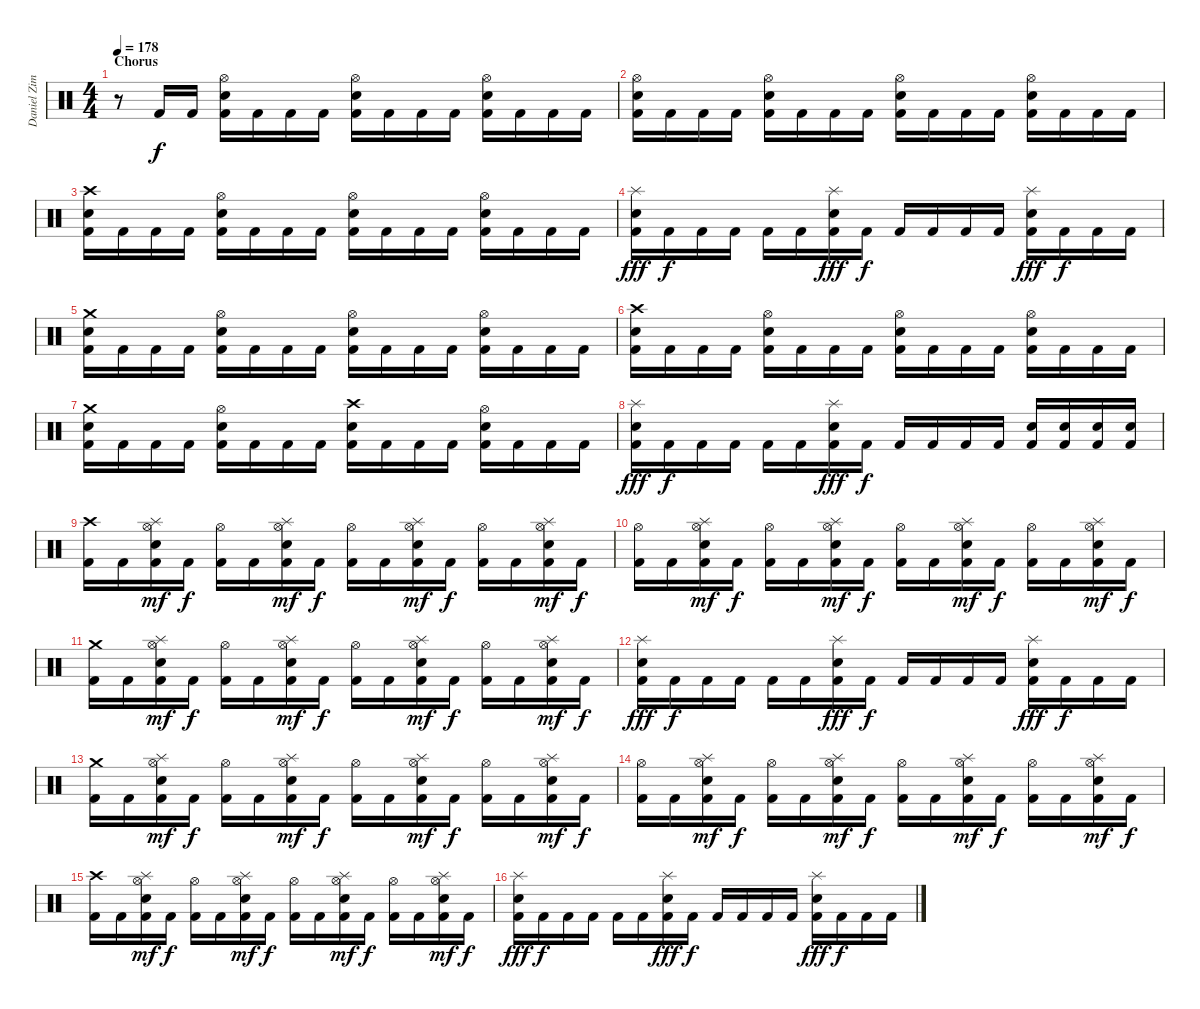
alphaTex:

\track ("Daniel Zimmermann" "Daniel Zim") {instrument percussion}
\staff {score}
\articulation defaults
\ts (4 4)
\section ("" "Chorus")
\tempo 178
\clef neutral
\ks c
r.8{dy f} "Kick (hit) 2".16 "Kick (hit) 2".16 ("Kick (hit) 2" "Electric Snare (hit)" "Hi-Hat (open)").16 "Kick (hit) 2".16 "Kick (hit) 2".16 "Kick (hit) 2".16 ("Kick (hit) 2" "Electric Snare (hit)" "Hi-Hat (open)").16 "Kick (hit) 2".16 "Kick (hit) 2".16 "Kick (hit) 2".16 ("Kick (hit) 2" "Electric Snare (hit)" "Hi-Hat (open)").16 "Kick (hit) 2".16 "Kick (hit) 2".16 "Kick (hit) 2".16 |
("Kick (hit) 2" "Electric Snare (hit)" "Hi-Hat (open)").16 "Kick (hit) 2".16 "Kick (hit) 2".16 "Kick (hit) 2".16 ("Kick (hit) 2" "Electric Snare (hit)" "Hi-Hat (open)").16 "Kick (hit) 2".16 "Kick (hit) 2".16 "Kick (hit) 2".16 ("Kick (hit) 2" "Electric Snare (hit)" "Hi-Hat (open)").16 "Kick (hit) 2".16 "Kick (hit) 2".16 "Kick (hit) 2".16 ("Kick (hit) 2" "Electric Snare (hit)" "Hi-Hat (open)").16 "Kick (hit) 2".16 "Kick (hit) 2".16 "Kick (hit) 2".16 |
("Kick (hit) 2" "Electric Snare (hit)" "Crash high (hit)").16 "Kick (hit) 2".16 "Kick (hit) 2".16 "Kick (hit) 2".16 ("Kick (hit) 2" "Electric Snare (hit)" "Hi-Hat (open)").16 "Kick (hit) 2".16 "Kick (hit) 2".16 "Kick (hit) 2".16 ("Kick (hit) 2" "Electric Snare (hit)" "Hi-Hat (open)").16 "Kick (hit) 2".16 "Kick (hit) 2".16 "Kick (hit) 2".16 ("Kick (hit) 2" "Electric Snare (hit)" "Hi-Hat (open)").16 "Kick (hit) 2".16 "Kick (hit) 2".16 "Kick (hit) 2".16 |
("Kick (hit) 2" "Electric Snare (hit)" "Splash (hit)").16{dy fff} "Kick (hit) 2".16{dy f} "Kick (hit) 2".16 "Kick (hit) 2".16 "Kick (hit) 2".16 "Kick (hit) 2".16 ("Kick (hit) 2" "Electric Snare (hit)" "Splash (hit)").16{dy fff} "Kick (hit) 2".16{dy f} "Kick (hit) 2".16 "Kick (hit) 2".16 "Kick (hit) 2".16 "Kick (hit) 2".16 ("Kick (hit) 2" "Electric Snare (hit)" "Splash (hit)").16{dy fff} "Kick (hit) 2".16{dy f} "Kick (hit) 2".16 "Kick (hit) 2".16 |
("Kick (hit) 2" "Electric Snare (hit)" "Crash medium (hit)").16 "Kick (hit) 2".16 "Kick (hit) 2".16 "Kick (hit) 2".16 ("Kick (hit) 2" "Electric Snare (hit)" "Hi-Hat (open)").16 "Kick (hit) 2".16 "Kick (hit) 2".16 "Kick (hit) 2".16 ("Kick (hit) 2" "Electric Snare (hit)" "Hi-Hat (open)").16 "Kick (hit) 2".16 "Kick (hit) 2".16 "Kick (hit) 2".16 ("Kick (hit) 2" "Electric Snare (hit)" "Hi-Hat (open)").16 "Kick (hit) 2".16 "Kick (hit) 2".16 "Kick (hit) 2".16 |
("Kick (hit) 2" "Electric Snare (hit)" "Crash high (hit)").16 "Kick (hit) 2".16 "Kick (hit) 2".16 "Kick (hit) 2".16 ("Kick (hit) 2" "Electric Snare (hit)" "Hi-Hat (open)").16 "Kick (hit) 2".16 "Kick (hit) 2".16 "Kick (hit) 2".16 ("Kick (hit) 2" "Electric Snare (hit)" "Hi-Hat (open)").16 "Kick (hit) 2".16 "Kick (hit) 2".16 "Kick (hit) 2".16 ("Kick (hit) 2" "Electric Snare (hit)" "Hi-Hat (open)").16 "Kick (hit) 2".16 "Kick (hit) 2".16 "Kick (hit) 2".16 |
("Kick (hit) 2" "Electric Snare (hit)" "Crash medium (hit)").16 "Kick (hit) 2".16 "Kick (hit) 2".16 "Kick (hit) 2".16 ("Kick (hit) 2" "Electric Snare (hit)" "Hi-Hat (open)").16 "Kick (hit) 2".16 "Kick (hit) 2".16 "Kick (hit) 2".16 ("Kick (hit) 2" "Electric Snare (hit)" "Crash high (hit)").16 "Kick (hit) 2".16 "Kick (hit) 2".16 "Kick (hit) 2".16 ("Kick (hit) 2" "Electric Snare (hit)" "Hi-Hat (open)").16 "Kick (hit) 2".16 "Kick (hit) 2".16 "Kick (hit) 2".16 |
("Kick (hit) 2" "Electric Snare (hit)" "Splash (hit)").16{dy fff} "Kick (hit) 2".16{dy f} "Kick (hit) 2".16 "Kick (hit) 2".16 "Kick (hit) 2".16 "Kick (hit) 2".16 ("Kick (hit) 2" "Electric Snare (hit)" "Splash (hit)").16{dy fff} "Kick (hit) 2".16{dy f} "Kick (hit) 2".16 "Kick (hit) 2".16 "Kick (hit) 2".16 "Kick (hit) 2".16 ("Kick (hit) 2" "Electric Snare (hit)").16 ("Kick (hit) 2" "Electric Snare (hit)").16 ("Kick (hit) 2" "Electric Snare (hit)").16 ("Kick (hit) 2" "Electric Snare (hit)").16 |
("Kick (hit) 2" "Crash high (hit)").16 "Kick (hit) 2".16 ("Kick (hit) 2" "Electric Snare (hit)" "Hi-Hat (open)" "Splash (hit)").16{dy mf} "Kick (hit) 2".16{dy f} ("Kick (hit) 2" "Hi-Hat (open)").16 "Kick (hit) 2".16 ("Kick (hit) 2" "Electric Snare (hit)" "Hi-Hat (open)" "Splash (hit)").16{dy mf} "Kick (hit) 2".16{dy f} ("Kick (hit) 2" "Hi-Hat (open)").16 "Kick (hit) 2".16 ("Kick (hit) 2" "Electric Snare (hit)" "Hi-Hat (open)" "Splash (hit)").16{dy mf} "Kick (hit) 2".16{dy f} ("Kick (hit) 2" "Hi-Hat (open)").16 "Kick (hit) 2".16 ("Kick (hit) 2" "Electric Snare (hit)" "Hi-Hat (open)" "Splash (hit)").16{dy mf} "Kick (hit) 2".16{dy f} |
("Kick (hit) 2" "Hi-Hat (open)").16 "Kick (hit) 2".16 ("Kick (hit) 2" "Electric Snare (hit)" "Hi-Hat (open)" "Splash (hit)").16{dy mf} "Kick (hit) 2".16{dy f} ("Kick (hit) 2" "Hi-Hat (open)").16 "Kick (hit) 2".16 ("Kick (hit) 2" "Electric Snare (hit)" "Hi-Hat (open)" "Splash (hit)").16{dy mf} "Kick (hit) 2".16{dy f} ("Kick (hit) 2" "Hi-Hat (open)").16 "Kick (hit) 2".16 ("Kick (hit) 2" "Electric Snare (hit)" "Hi-Hat (open)" "Splash (hit)").16{dy mf} "Kick (hit) 2".16{dy f} ("Kick (hit) 2" "Hi-Hat (open)").16 "Kick (hit) 2".16 ("Kick (hit) 2" "Electric Snare (hit)" "Hi-Hat (open)" "Splash (hit)").16{dy mf} "Kick (hit) 2".16{dy f} |
("Kick (hit) 2" "Crash medium (hit)").16 "Kick (hit) 2".16 ("Kick (hit) 2" "Electric Snare (hit)" "Hi-Hat (open)" "Splash (hit)").16{dy mf} "Kick (hit) 2".16{dy f} ("Kick (hit) 2" "Hi-Hat (open)").16 "Kick (hit) 2".16 ("Kick (hit) 2" "Electric Snare (hit)" "Hi-Hat (open)" "Splash (hit)").16{dy mf} "Kick (hit) 2".16{dy f} ("Kick (hit) 2" "Hi-Hat (open)").16 "Kick (hit) 2".16 ("Kick (hit) 2" "Electric Snare (hit)" "Hi-Hat (open)" "Splash (hit)").16{dy mf} "Kick (hit) 2".16{dy f} ("Kick (hit) 2" "Hi-Hat (open)").16 "Kick (hit) 2".16 ("Kick (hit) 2" "Electric Snare (hit)" "Hi-Hat (open)" "Splash (hit)").16{dy mf} "Kick (hit) 2".16{dy f} |
("Kick (hit) 2" "Electric Snare (hit)" "Splash (hit)").16{dy fff} "Kick (hit) 2".16{dy f} "Kick (hit) 2".16 "Kick (hit) 2".16 "Kick (hit) 2".16 "Kick (hit) 2".16 ("Kick (hit) 2" "Electric Snare (hit)" "Splash (hit)").16{dy fff} "Kick (hit) 2".16{dy f} "Kick (hit) 2".16 "Kick (hit) 2".16 "Kick (hit) 2".16 "Kick (hit) 2".16 ("Kick (hit) 2" "Electric Snare (hit)" "Splash (hit)").16{dy fff} "Kick (hit) 2".16{dy f} "Kick (hit) 2".16 "Kick (hit) 2".16 |
("Kick (hit) 2" "Crash medium (hit)").16 "Kick (hit) 2".16 ("Kick (hit) 2" "Electric Snare (hit)" "Hi-Hat (open)" "Splash (hit)").16{dy mf} "Kick (hit) 2".16{dy f} ("Kick (hit) 2" "Hi-Hat (open)").16 "Kick (hit) 2".16 ("Kick (hit) 2" "Electric Snare (hit)" "Hi-Hat (open)" "Splash (hit)").16{dy mf} "Kick (hit) 2".16{dy f} ("Kick (hit) 2" "Hi-Hat (open)").16 "Kick (hit) 2".16 ("Kick (hit) 2" "Electric Snare (hit)" "Hi-Hat (open)" "Splash (hit)").16{dy mf} "Kick (hit) 2".16{dy f} ("Kick (hit) 2" "Hi-Hat (open)").16 "Kick (hit) 2".16 ("Kick (hit) 2" "Electric Snare (hit)" "Hi-Hat (open)" "Splash (hit)").16{dy mf} "Kick (hit) 2".16{dy f} |
("Kick (hit) 2" "Hi-Hat (open)").16 "Kick (hit) 2".16 ("Kick (hit) 2" "Electric Snare (hit)" "Hi-Hat (open)" "Splash (hit)").16{dy mf} "Kick (hit) 2".16{dy f} ("Kick (hit) 2" "Hi-Hat (open)").16 "Kick (hit) 2".16 ("Kick (hit) 2" "Electric Snare (hit)" "Hi-Hat (open)" "Splash (hit)").16{dy mf} "Kick (hit) 2".16{dy f} ("Kick (hit) 2" "Hi-Hat (open)").16 "Kick (hit) 2".16 ("Kick (hit) 2" "Electric Snare (hit)" "Hi-Hat (open)" "Splash (hit)").16{dy mf} "Kick (hit) 2".16{dy f} ("Kick (hit) 2" "Hi-Hat (open)").16 "Kick (hit) 2".16 ("Kick (hit) 2" "Electric Snare (hit)" "Hi-Hat (open)" "Splash (hit)").16{dy mf} "Kick (hit) 2".16{dy f} |
("Kick (hit) 2" "Crash high (hit)").16 "Kick (hit) 2".16 ("Kick (hit) 2" "Electric Snare (hit)" "Hi-Hat (open)" "Splash (hit)").16{dy mf} "Kick (hit) 2".16{dy f} ("Kick (hit) 2" "Hi-Hat (open)").16 "Kick (hit) 2".16 ("Kick (hit) 2" "Electric Snare (hit)" "Hi-Hat (open)" "Splash (hit)").16{dy mf} "Kick (hit) 2".16{dy f} ("Kick (hit) 2" "Hi-Hat (open)").16 "Kick (hit) 2".16 ("Kick (hit) 2" "Electric Snare (hit)" "Hi-Hat (open)" "Splash (hit)").16{dy mf} "Kick (hit) 2".16{dy f} ("Kick (hit) 2" "Hi-Hat (open)").16 "Kick (hit) 2".16 ("Kick (hit) 2" "Electric Snare (hit)" "Hi-Hat (open)" "Splash (hit)").16{dy mf} "Kick (hit) 2".16{dy f} |
("Kick (hit) 2" "Electric Snare (hit)" "Splash (hit)").16{dy fff} "Kick (hit) 2".16{dy f} "Kick (hit) 2".16 "Kick (hit) 2".16 "Kick (hit) 2".16 "Kick (hit) 2".16 ("Kick (hit) 2" "Electric Snare (hit)" "Splash (hit)").16{dy fff} "Kick (hit) 2".16{dy f} "Kick (hit) 2".16 "Kick (hit) 2".16 "Kick (hit) 2".16 "Kick (hit) 2".16 ("Kick (hit) 2" "Electric Snare (hit)" "Splash (hit)").16{dy fff} "Kick (hit) 2".16{dy f} "Kick (hit) 2".16 "Kick (hit) 2".16
